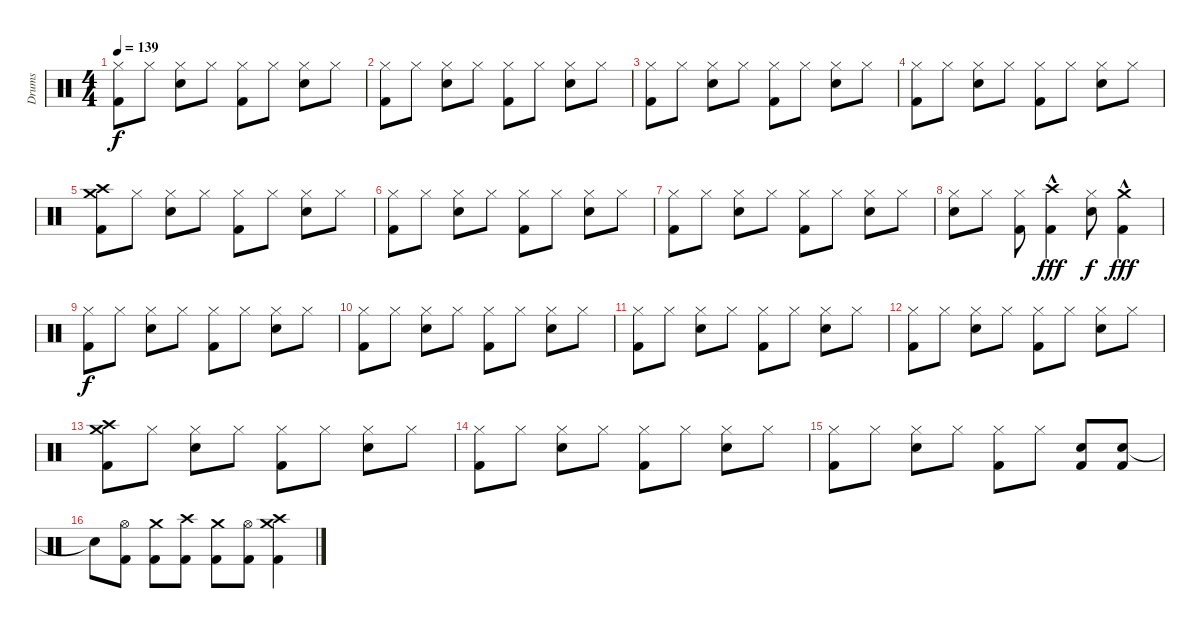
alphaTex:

\track ("Drums" "Drums") {instrument percussion}
\staff {score}
\articulation defaults
\ts (4 4)
\tempo 139
\clef neutral
\ks c
("Hi-Hat (closed)" "Kick (hit) 2").8{dy f} "Hi-Hat (closed)".8 ("Hi-Hat (closed)" "Snare (hit) 2").8 "Hi-Hat (closed)".8 ("Hi-Hat (closed)" "Kick (hit) 2").8 "Hi-Hat (closed)".8 ("Hi-Hat (closed)" "Snare (hit) 2").8 "Hi-Hat (closed)".8 |
("Hi-Hat (closed)" "Kick (hit) 2").8 "Hi-Hat (closed)".8 ("Hi-Hat (closed)" "Snare (hit) 2").8 "Hi-Hat (closed)".8 ("Hi-Hat (closed)" "Kick (hit) 2").8 "Hi-Hat (closed)".8 ("Hi-Hat (closed)" "Snare (hit) 2").8 "Hi-Hat (closed)".8 |
("Hi-Hat (closed)" "Kick (hit) 2").8 "Hi-Hat (closed)".8 ("Hi-Hat (closed)" "Snare (hit) 2").8 "Hi-Hat (closed)".8 ("Hi-Hat (closed)" "Kick (hit) 2").8 "Hi-Hat (closed)".8 ("Hi-Hat (closed)" "Snare (hit) 2").8 "Hi-Hat (closed)".8 |
("Hi-Hat (closed)" "Kick (hit) 2").8 "Hi-Hat (closed)".8 ("Hi-Hat (closed)" "Snare (hit) 2").8 "Hi-Hat (closed)".8 ("Hi-Hat (closed)" "Kick (hit) 2").8 "Hi-Hat (closed)".8 ("Hi-Hat (closed)" "Snare (hit) 2").8 "Hi-Hat (closed)".8 |
("Crash high (hit)" "Crash medium (hit)" "Kick (hit) 2").8 "Hi-Hat (closed)".8 ("Hi-Hat (closed)" "Snare (hit) 2").8 "Hi-Hat (closed)".8 ("Hi-Hat (closed)" "Kick (hit) 2").8 "Hi-Hat (closed)".8 ("Hi-Hat (closed)" "Snare (hit) 2").8 "Hi-Hat (closed)".8 |
("Hi-Hat (closed)" "Kick (hit) 2").8 "Hi-Hat (closed)".8 ("Hi-Hat (closed)" "Snare (hit) 2").8 "Hi-Hat (closed)".8 ("Hi-Hat (closed)" "Kick (hit) 2").8 "Hi-Hat (closed)".8 ("Hi-Hat (closed)" "Snare (hit) 2").8 "Hi-Hat (closed)".8 |
("Hi-Hat (closed)" "Kick (hit) 2").8 "Hi-Hat (closed)".8 ("Hi-Hat (closed)" "Snare (hit) 2").8 "Hi-Hat (closed)".8 ("Hi-Hat (closed)" "Kick (hit) 2").8 "Hi-Hat (closed)".8 ("Hi-Hat (closed)" "Snare (hit) 2").8 "Hi-Hat (closed)".8 |
("Hi-Hat (closed)" "Snare (hit) 2").8 "Hi-Hat (closed)".8 ("Hi-Hat (closed)" "Kick (hit) 2").8 ("Crash high (hit)"{hac} "Kick (hit) 2").4{dy fff} ("Hi-Hat (closed)" "Snare (hit) 2").8{dy f} ("Crash medium (hit)"{hac} "Kick (hit) 2").4{dy fff} |
("Hi-Hat (closed)" "Kick (hit) 2").8{dy f} "Hi-Hat (closed)".8 ("Hi-Hat (closed)" "Snare (hit) 2").8 "Hi-Hat (closed)".8 ("Hi-Hat (closed)" "Kick (hit) 2").8 "Hi-Hat (closed)".8 ("Hi-Hat (closed)" "Snare (hit) 2").8 "Hi-Hat (closed)".8 |
("Hi-Hat (closed)" "Kick (hit) 2").8 "Hi-Hat (closed)".8 ("Hi-Hat (closed)" "Snare (hit) 2").8 "Hi-Hat (closed)".8 ("Hi-Hat (closed)" "Kick (hit) 2").8 "Hi-Hat (closed)".8 ("Hi-Hat (closed)" "Snare (hit) 2").8 "Hi-Hat (closed)".8 |
("Hi-Hat (closed)" "Kick (hit) 2").8 "Hi-Hat (closed)".8 ("Hi-Hat (closed)" "Snare (hit) 2").8 "Hi-Hat (closed)".8 ("Hi-Hat (closed)" "Kick (hit) 2").8 "Hi-Hat (closed)".8 ("Hi-Hat (closed)" "Snare (hit) 2").8 "Hi-Hat (closed)".8 |
("Hi-Hat (closed)" "Kick (hit) 2").8 "Hi-Hat (closed)".8 ("Hi-Hat (closed)" "Snare (hit) 2").8 "Hi-Hat (closed)".8 ("Hi-Hat (closed)" "Kick (hit) 2").8 "Hi-Hat (closed)".8 ("Hi-Hat (closed)" "Snare (hit) 2").8 "Hi-Hat (closed)".8 |
("Crash high (hit)" "Crash medium (hit)" "Kick (hit) 2").8 "Hi-Hat (closed)".8 ("Hi-Hat (closed)" "Snare (hit) 2").8 "Hi-Hat (closed)".8 ("Hi-Hat (closed)" "Kick (hit) 2").8 "Hi-Hat (closed)".8 ("Hi-Hat (closed)" "Snare (hit) 2").8 "Hi-Hat (closed)".8 |
("Hi-Hat (closed)" "Kick (hit) 2").8 "Hi-Hat (closed)".8 ("Hi-Hat (closed)" "Snare (hit) 2").8 "Hi-Hat (closed)".8 ("Hi-Hat (closed)" "Kick (hit) 2").8 "Hi-Hat (closed)".8 ("Hi-Hat (closed)" "Snare (hit) 2").8 "Hi-Hat (closed)".8 |
("Hi-Hat (closed)" "Kick (hit) 2").8 "Hi-Hat (closed)".8 ("Hi-Hat (closed)" "Snare (hit) 2").8 "Hi-Hat (closed)".8 ("Hi-Hat (closed)" "Kick (hit) 2").8 "Hi-Hat (closed)".8 ("Snare (hit) 2" "Kick (hit) 2").8 ("Snare (hit) 2" "Kick (hit) 2").8 |
"Snare (hit)"{t}.8 ("Hi-Hat (open)" "Kick (hit) 2").8 ("Crash medium (hit)" "Kick (hit) 2").8 ("Crash high (hit)" "Kick (hit) 2").8 ("Crash medium (hit)" "Kick (hit) 2").8 ("Hi-Hat (open)" "Kick (hit) 2").8 ("Crash high (hit)" "Crash medium (hit)" "Kick (hit) 2").4
